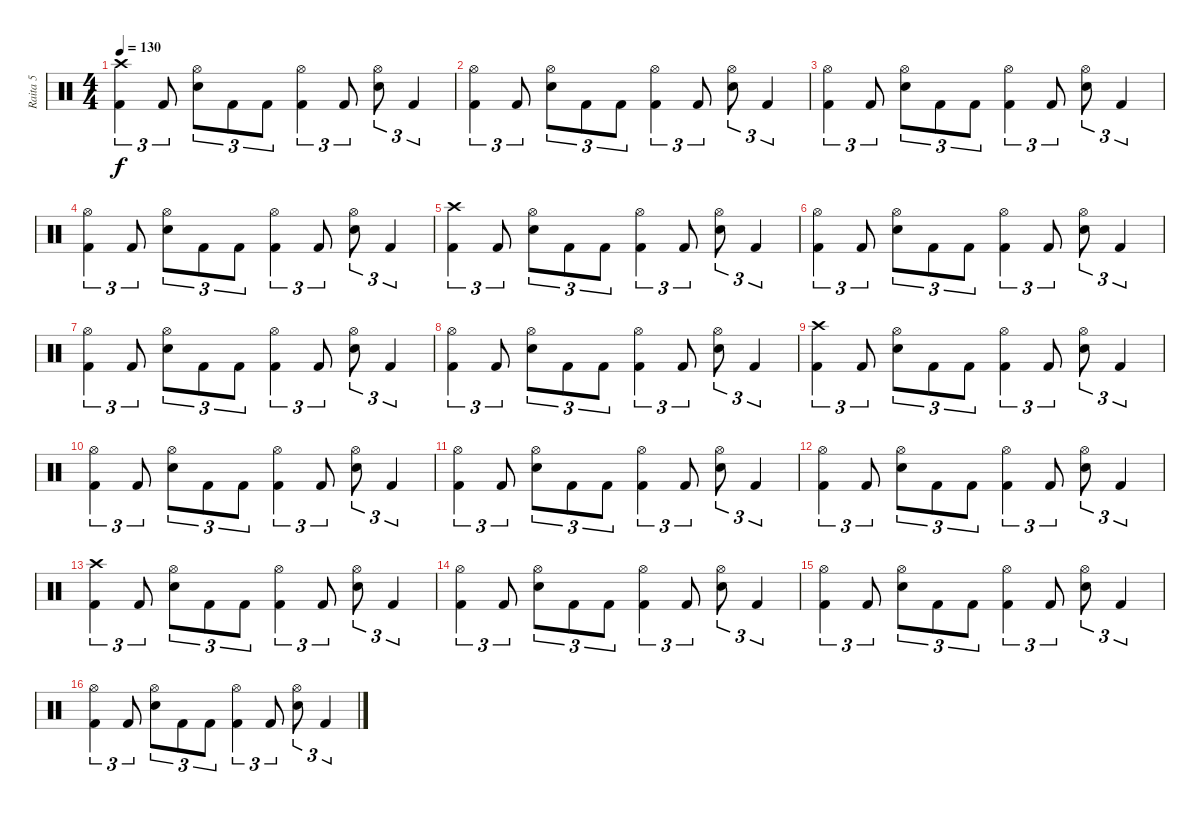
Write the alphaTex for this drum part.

\track ("Raita 5" "Raita 5") {instrument percussion}
\staff {score}
\articulation defaults
\ts (4 4)
\tempo 130
\clef neutral
\ks c
("Crash high (hit)" "Kick (hit) 2").4{tu (3 2) dy f} "Kick (hit) 2".8{tu (3 2)} ("Hi-Hat (open)" "Snare (hit) 2").8{tu (3 2)} "Kick (hit) 2".8{tu (3 2)} "Kick (hit) 2".8{tu (3 2)} ("Hi-Hat (open)" "Kick (hit) 2").4{tu (3 2)} "Kick (hit) 2".8{tu (3 2)} ("Hi-Hat (open)" "Snare (hit) 2").8{tu (3 2)} "Kick (hit) 2".4{tu (3 2)} |
("Hi-Hat (open)" "Kick (hit) 2").4{tu (3 2)} "Kick (hit) 2".8{tu (3 2)} ("Hi-Hat (open)" "Snare (hit) 2").8{tu (3 2)} "Kick (hit) 2".8{tu (3 2)} "Kick (hit) 2".8{tu (3 2)} ("Hi-Hat (open)" "Kick (hit) 2").4{tu (3 2)} "Kick (hit) 2".8{tu (3 2)} ("Hi-Hat (open)" "Snare (hit) 2").8{tu (3 2)} "Kick (hit) 2".4{tu (3 2)} |
("Hi-Hat (open)" "Kick (hit) 2").4{tu (3 2)} "Kick (hit) 2".8{tu (3 2)} ("Hi-Hat (open)" "Snare (hit) 2").8{tu (3 2)} "Kick (hit) 2".8{tu (3 2)} "Kick (hit) 2".8{tu (3 2)} ("Hi-Hat (open)" "Kick (hit) 2").4{tu (3 2)} "Kick (hit) 2".8{tu (3 2)} ("Hi-Hat (open)" "Snare (hit) 2").8{tu (3 2)} "Kick (hit) 2".4{tu (3 2)} |
("Hi-Hat (open)" "Kick (hit) 2").4{tu (3 2)} "Kick (hit) 2".8{tu (3 2)} ("Hi-Hat (open)" "Snare (hit) 2").8{tu (3 2)} "Kick (hit) 2".8{tu (3 2)} "Kick (hit) 2".8{tu (3 2)} ("Hi-Hat (open)" "Kick (hit) 2").4{tu (3 2)} "Kick (hit) 2".8{tu (3 2)} ("Hi-Hat (open)" "Snare (hit) 2").8{tu (3 2)} "Kick (hit) 2".4{tu (3 2)} |
("Crash high (hit)" "Kick (hit) 2").4{tu (3 2)} "Kick (hit) 2".8{tu (3 2)} ("Hi-Hat (open)" "Snare (hit) 2").8{tu (3 2)} "Kick (hit) 2".8{tu (3 2)} "Kick (hit) 2".8{tu (3 2)} ("Hi-Hat (open)" "Kick (hit) 2").4{tu (3 2)} "Kick (hit) 2".8{tu (3 2)} ("Hi-Hat (open)" "Snare (hit) 2").8{tu (3 2)} "Kick (hit) 2".4{tu (3 2)} |
("Hi-Hat (open)" "Kick (hit) 2").4{tu (3 2)} "Kick (hit) 2".8{tu (3 2)} ("Hi-Hat (open)" "Snare (hit) 2").8{tu (3 2)} "Kick (hit) 2".8{tu (3 2)} "Kick (hit) 2".8{tu (3 2)} ("Hi-Hat (open)" "Kick (hit) 2").4{tu (3 2)} "Kick (hit) 2".8{tu (3 2)} ("Hi-Hat (open)" "Snare (hit) 2").8{tu (3 2)} "Kick (hit) 2".4{tu (3 2)} |
("Hi-Hat (open)" "Kick (hit) 2").4{tu (3 2)} "Kick (hit) 2".8{tu (3 2)} ("Hi-Hat (open)" "Snare (hit) 2").8{tu (3 2)} "Kick (hit) 2".8{tu (3 2)} "Kick (hit) 2".8{tu (3 2)} ("Hi-Hat (open)" "Kick (hit) 2").4{tu (3 2)} "Kick (hit) 2".8{tu (3 2)} ("Hi-Hat (open)" "Snare (hit) 2").8{tu (3 2)} "Kick (hit) 2".4{tu (3 2)} |
("Hi-Hat (open)" "Kick (hit) 2").4{tu (3 2)} "Kick (hit) 2".8{tu (3 2)} ("Hi-Hat (open)" "Snare (hit) 2").8{tu (3 2)} "Kick (hit) 2".8{tu (3 2)} "Kick (hit) 2".8{tu (3 2)} ("Hi-Hat (open)" "Kick (hit) 2").4{tu (3 2)} "Kick (hit) 2".8{tu (3 2)} ("Hi-Hat (open)" "Snare (hit) 2").8{tu (3 2)} "Kick (hit) 2".4{tu (3 2)} |
("Crash high (hit)" "Kick (hit) 2").4{tu (3 2)} "Kick (hit) 2".8{tu (3 2)} ("Hi-Hat (open)" "Snare (hit) 2").8{tu (3 2)} "Kick (hit) 2".8{tu (3 2)} "Kick (hit) 2".8{tu (3 2)} ("Hi-Hat (open)" "Kick (hit) 2").4{tu (3 2)} "Kick (hit) 2".8{tu (3 2)} ("Hi-Hat (open)" "Snare (hit) 2").8{tu (3 2)} "Kick (hit) 2".4{tu (3 2)} |
("Hi-Hat (open)" "Kick (hit) 2").4{tu (3 2)} "Kick (hit) 2".8{tu (3 2)} ("Hi-Hat (open)" "Snare (hit) 2").8{tu (3 2)} "Kick (hit) 2".8{tu (3 2)} "Kick (hit) 2".8{tu (3 2)} ("Hi-Hat (open)" "Kick (hit) 2").4{tu (3 2)} "Kick (hit) 2".8{tu (3 2)} ("Hi-Hat (open)" "Snare (hit) 2").8{tu (3 2)} "Kick (hit) 2".4{tu (3 2)} |
("Hi-Hat (open)" "Kick (hit) 2").4{tu (3 2)} "Kick (hit) 2".8{tu (3 2)} ("Hi-Hat (open)" "Snare (hit) 2").8{tu (3 2)} "Kick (hit) 2".8{tu (3 2)} "Kick (hit) 2".8{tu (3 2)} ("Hi-Hat (open)" "Kick (hit) 2").4{tu (3 2)} "Kick (hit) 2".8{tu (3 2)} ("Hi-Hat (open)" "Snare (hit) 2").8{tu (3 2)} "Kick (hit) 2".4{tu (3 2)} |
("Hi-Hat (open)" "Kick (hit) 2").4{tu (3 2)} "Kick (hit) 2".8{tu (3 2)} ("Hi-Hat (open)" "Snare (hit) 2").8{tu (3 2)} "Kick (hit) 2".8{tu (3 2)} "Kick (hit) 2".8{tu (3 2)} ("Hi-Hat (open)" "Kick (hit) 2").4{tu (3 2)} "Kick (hit) 2".8{tu (3 2)} ("Hi-Hat (open)" "Snare (hit) 2").8{tu (3 2)} "Kick (hit) 2".4{tu (3 2)} |
("Crash high (hit)" "Kick (hit) 2").4{tu (3 2)} "Kick (hit) 2".8{tu (3 2)} ("Hi-Hat (open)" "Snare (hit) 2").8{tu (3 2)} "Kick (hit) 2".8{tu (3 2)} "Kick (hit) 2".8{tu (3 2)} ("Hi-Hat (open)" "Kick (hit) 2").4{tu (3 2)} "Kick (hit) 2".8{tu (3 2)} ("Hi-Hat (open)" "Snare (hit) 2").8{tu (3 2)} "Kick (hit) 2".4{tu (3 2)} |
("Hi-Hat (open)" "Kick (hit) 2").4{tu (3 2)} "Kick (hit) 2".8{tu (3 2)} ("Hi-Hat (open)" "Snare (hit) 2").8{tu (3 2)} "Kick (hit) 2".8{tu (3 2)} "Kick (hit) 2".8{tu (3 2)} ("Hi-Hat (open)" "Kick (hit) 2").4{tu (3 2)} "Kick (hit) 2".8{tu (3 2)} ("Hi-Hat (open)" "Snare (hit) 2").8{tu (3 2)} "Kick (hit) 2".4{tu (3 2)} |
("Hi-Hat (open)" "Kick (hit) 2").4{tu (3 2)} "Kick (hit) 2".8{tu (3 2)} ("Hi-Hat (open)" "Snare (hit) 2").8{tu (3 2)} "Kick (hit) 2".8{tu (3 2)} "Kick (hit) 2".8{tu (3 2)} ("Hi-Hat (open)" "Kick (hit) 2").4{tu (3 2)} "Kick (hit) 2".8{tu (3 2)} ("Hi-Hat (open)" "Snare (hit) 2").8{tu (3 2)} "Kick (hit) 2".4{tu (3 2)} |
("Hi-Hat (open)" "Kick (hit) 2").4{tu (3 2)} "Kick (hit) 2".8{tu (3 2)} ("Hi-Hat (open)" "Snare (hit) 2").8{tu (3 2)} "Kick (hit) 2".8{tu (3 2)} "Kick (hit) 2".8{tu (3 2)} ("Hi-Hat (open)" "Kick (hit) 2").4{tu (3 2)} "Kick (hit) 2".8{tu (3 2)} ("Hi-Hat (open)" "Snare (hit) 2").8{tu (3 2)} "Kick (hit) 2".4{tu (3 2)}
